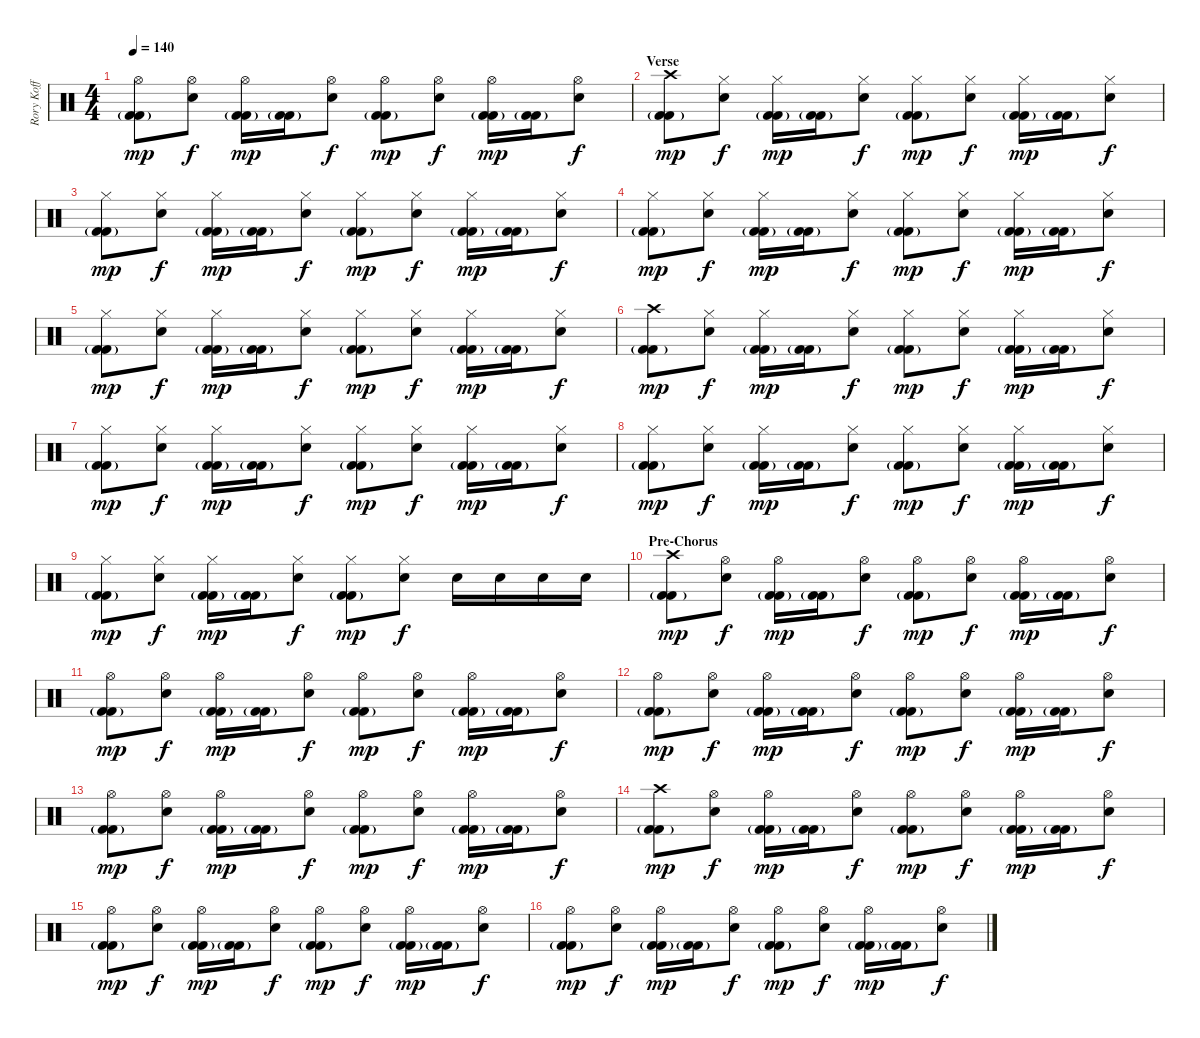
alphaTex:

\track ("Rory Koff" "Rory Koff") {instrument percussion}
\staff {score}
\articulation defaults
\ts (4 4)
\tempo 140
\clef neutral
\ks c
("Hi-Hat (open)" "Kick (hit) 2"{g} "Kick (hit) 2").8{dy mp} ("Hi-Hat (open)" "Snare (hit) 2").8{dy f} ("Hi-Hat (open)" "Kick (hit) 2"{g} "Kick (hit) 2").16{dy mp} ("Kick (hit) 2"{g} "Kick (hit) 2").16 ("Hi-Hat (open)" "Snare (hit) 2").8{dy f} ("Hi-Hat (open)" "Kick (hit) 2"{g} "Kick (hit) 2").8{dy mp} ("Hi-Hat (open)" "Snare (hit) 2").8{dy f} ("Hi-Hat (open)" "Kick (hit) 2"{g} "Kick (hit) 2").16{dy mp} ("Kick (hit) 2"{g} "Kick (hit) 2").16 ("Hi-Hat (open)" "Snare (hit) 2").8{dy f} |
\section ("" "Verse")
("Crash high (hit)" "Kick (hit) 2"{g} "Kick (hit) 2").8{dy mp} ("Hi-Hat (closed)" "Snare (hit) 2").8{dy f} ("Hi-Hat (closed)" "Kick (hit) 2"{g} "Kick (hit) 2").16{dy mp} ("Kick (hit) 2"{g} "Kick (hit) 2").16 ("Hi-Hat (closed)" "Snare (hit) 2").8{dy f} ("Hi-Hat (closed)" "Kick (hit) 2"{g} "Kick (hit) 2").8{dy mp} ("Hi-Hat (closed)" "Snare (hit) 2").8{dy f} ("Hi-Hat (closed)" "Kick (hit) 2"{g} "Kick (hit) 2").16{dy mp} ("Kick (hit) 2"{g} "Kick (hit) 2").16 ("Hi-Hat (closed)" "Snare (hit) 2").8{dy f} |
("Hi-Hat (closed)" "Kick (hit) 2"{g} "Kick (hit) 2").8{dy mp} ("Hi-Hat (closed)" "Snare (hit) 2").8{dy f} ("Hi-Hat (closed)" "Kick (hit) 2"{g} "Kick (hit) 2").16{dy mp} ("Kick (hit) 2"{g} "Kick (hit) 2").16 ("Hi-Hat (closed)" "Snare (hit) 2").8{dy f} ("Hi-Hat (closed)" "Kick (hit) 2"{g} "Kick (hit) 2").8{dy mp} ("Hi-Hat (closed)" "Snare (hit) 2").8{dy f} ("Hi-Hat (closed)" "Kick (hit) 2"{g} "Kick (hit) 2").16{dy mp} ("Kick (hit) 2"{g} "Kick (hit) 2").16 ("Hi-Hat (closed)" "Snare (hit) 2").8{dy f} |
("Hi-Hat (closed)" "Kick (hit) 2"{g} "Kick (hit) 2").8{dy mp} ("Hi-Hat (closed)" "Snare (hit) 2").8{dy f} ("Hi-Hat (closed)" "Kick (hit) 2"{g} "Kick (hit) 2").16{dy mp} ("Kick (hit) 2"{g} "Kick (hit) 2").16 ("Hi-Hat (closed)" "Snare (hit) 2").8{dy f} ("Hi-Hat (closed)" "Kick (hit) 2"{g} "Kick (hit) 2").8{dy mp} ("Hi-Hat (closed)" "Snare (hit) 2").8{dy f} ("Hi-Hat (closed)" "Kick (hit) 2"{g} "Kick (hit) 2").16{dy mp} ("Kick (hit) 2"{g} "Kick (hit) 2").16 ("Hi-Hat (closed)" "Snare (hit) 2").8{dy f} |
("Hi-Hat (closed)" "Kick (hit) 2"{g} "Kick (hit) 2").8{dy mp} ("Hi-Hat (closed)" "Snare (hit) 2").8{dy f} ("Hi-Hat (closed)" "Kick (hit) 2"{g} "Kick (hit) 2").16{dy mp} ("Kick (hit) 2"{g} "Kick (hit) 2").16 ("Hi-Hat (closed)" "Snare (hit) 2").8{dy f} ("Hi-Hat (closed)" "Kick (hit) 2"{g} "Kick (hit) 2").8{dy mp} ("Hi-Hat (closed)" "Snare (hit) 2").8{dy f} ("Hi-Hat (closed)" "Kick (hit) 2"{g} "Kick (hit) 2").16{dy mp} ("Kick (hit) 2"{g} "Kick (hit) 2").16 ("Hi-Hat (closed)" "Snare (hit) 2").8{dy f} |
("Crash high (hit)" "Kick (hit) 2"{g} "Kick (hit) 2").8{dy mp} ("Hi-Hat (closed)" "Snare (hit) 2").8{dy f} ("Hi-Hat (closed)" "Kick (hit) 2"{g} "Kick (hit) 2").16{dy mp} ("Kick (hit) 2"{g} "Kick (hit) 2").16 ("Hi-Hat (closed)" "Snare (hit) 2").8{dy f} ("Hi-Hat (closed)" "Kick (hit) 2"{g} "Kick (hit) 2").8{dy mp} ("Hi-Hat (closed)" "Snare (hit) 2").8{dy f} ("Hi-Hat (closed)" "Kick (hit) 2"{g} "Kick (hit) 2").16{dy mp} ("Kick (hit) 2"{g} "Kick (hit) 2").16 ("Hi-Hat (closed)" "Snare (hit) 2").8{dy f} |
("Hi-Hat (closed)" "Kick (hit) 2"{g} "Kick (hit) 2").8{dy mp} ("Hi-Hat (closed)" "Snare (hit) 2").8{dy f} ("Hi-Hat (closed)" "Kick (hit) 2"{g} "Kick (hit) 2").16{dy mp} ("Kick (hit) 2"{g} "Kick (hit) 2").16 ("Hi-Hat (closed)" "Snare (hit) 2").8{dy f} ("Hi-Hat (closed)" "Kick (hit) 2"{g} "Kick (hit) 2").8{dy mp} ("Hi-Hat (closed)" "Snare (hit) 2").8{dy f} ("Hi-Hat (closed)" "Kick (hit) 2"{g} "Kick (hit) 2").16{dy mp} ("Kick (hit) 2"{g} "Kick (hit) 2").16 ("Hi-Hat (closed)" "Snare (hit) 2").8{dy f} |
("Hi-Hat (closed)" "Kick (hit) 2"{g} "Kick (hit) 2").8{dy mp} ("Hi-Hat (closed)" "Snare (hit) 2").8{dy f} ("Hi-Hat (closed)" "Kick (hit) 2"{g} "Kick (hit) 2").16{dy mp} ("Kick (hit) 2"{g} "Kick (hit) 2").16 ("Hi-Hat (closed)" "Snare (hit) 2").8{dy f} ("Hi-Hat (closed)" "Kick (hit) 2"{g} "Kick (hit) 2").8{dy mp} ("Hi-Hat (closed)" "Snare (hit) 2").8{dy f} ("Hi-Hat (closed)" "Kick (hit) 2"{g} "Kick (hit) 2").16{dy mp} ("Kick (hit) 2"{g} "Kick (hit) 2").16 ("Hi-Hat (closed)" "Snare (hit) 2").8{dy f} |
("Hi-Hat (closed)" "Kick (hit) 2"{g} "Kick (hit) 2").8{dy mp} ("Hi-Hat (closed)" "Snare (hit) 2").8{dy f} ("Hi-Hat (closed)" "Kick (hit) 2"{g} "Kick (hit) 2").16{dy mp} ("Kick (hit) 2"{g} "Kick (hit) 2").16 ("Hi-Hat (closed)" "Snare (hit) 2").8{dy f} ("Hi-Hat (closed)" "Kick (hit) 2"{g} "Kick (hit) 2").8{dy mp} ("Hi-Hat (closed)" "Snare (hit) 2").8{dy f} "Snare (hit) 2".16 "Snare (hit) 2".16 "Snare (hit) 2".16 "Snare (hit) 2".16 |
\section ("" "Pre-Chorus")
("Crash high (hit)" "Kick (hit) 2"{g} "Kick (hit) 2").8{dy mp} ("Hi-Hat (open)" "Snare (hit) 2").8{dy f} ("Hi-Hat (open)" "Kick (hit) 2"{g} "Kick (hit) 2").16{dy mp} ("Kick (hit) 2"{g} "Kick (hit) 2").16 ("Hi-Hat (open)" "Snare (hit) 2").8{dy f} ("Hi-Hat (open)" "Kick (hit) 2"{g} "Kick (hit) 2").8{dy mp} ("Hi-Hat (open)" "Snare (hit) 2").8{dy f} ("Hi-Hat (open)" "Kick (hit) 2"{g} "Kick (hit) 2").16{dy mp} ("Kick (hit) 2"{g} "Kick (hit) 2").16 ("Hi-Hat (open)" "Snare (hit) 2").8{dy f} |
("Hi-Hat (open)" "Kick (hit) 2"{g} "Kick (hit) 2").8{dy mp} ("Hi-Hat (open)" "Snare (hit) 2").8{dy f} ("Hi-Hat (open)" "Kick (hit) 2"{g} "Kick (hit) 2").16{dy mp} ("Kick (hit) 2"{g} "Kick (hit) 2").16 ("Hi-Hat (open)" "Snare (hit) 2").8{dy f} ("Hi-Hat (open)" "Kick (hit) 2"{g} "Kick (hit) 2").8{dy mp} ("Hi-Hat (open)" "Snare (hit) 2").8{dy f} ("Hi-Hat (open)" "Kick (hit) 2"{g} "Kick (hit) 2").16{dy mp} ("Kick (hit) 2"{g} "Kick (hit) 2").16 ("Hi-Hat (open)" "Snare (hit) 2").8{dy f} |
("Hi-Hat (open)" "Kick (hit) 2"{g} "Kick (hit) 2").8{dy mp} ("Hi-Hat (open)" "Snare (hit) 2").8{dy f} ("Hi-Hat (open)" "Kick (hit) 2"{g} "Kick (hit) 2").16{dy mp} ("Kick (hit) 2"{g} "Kick (hit) 2").16 ("Hi-Hat (open)" "Snare (hit) 2").8{dy f} ("Hi-Hat (open)" "Kick (hit) 2"{g} "Kick (hit) 2").8{dy mp} ("Hi-Hat (open)" "Snare (hit) 2").8{dy f} ("Hi-Hat (open)" "Kick (hit) 2"{g} "Kick (hit) 2").16{dy mp} ("Kick (hit) 2"{g} "Kick (hit) 2").16 ("Hi-Hat (open)" "Snare (hit) 2").8{dy f} |
("Hi-Hat (open)" "Kick (hit) 2"{g} "Kick (hit) 2").8{dy mp} ("Hi-Hat (open)" "Snare (hit) 2").8{dy f} ("Hi-Hat (open)" "Kick (hit) 2"{g} "Kick (hit) 2").16{dy mp} ("Kick (hit) 2"{g} "Kick (hit) 2").16 ("Hi-Hat (open)" "Snare (hit) 2").8{dy f} ("Hi-Hat (open)" "Kick (hit) 2"{g} "Kick (hit) 2").8{dy mp} ("Hi-Hat (open)" "Snare (hit) 2").8{dy f} ("Hi-Hat (open)" "Kick (hit) 2"{g} "Kick (hit) 2").16{dy mp} ("Kick (hit) 2"{g} "Kick (hit) 2").16 ("Hi-Hat (open)" "Snare (hit) 2").8{dy f} |
("Crash high (hit)" "Kick (hit) 2"{g} "Kick (hit) 2").8{dy mp} ("Hi-Hat (open)" "Snare (hit) 2").8{dy f} ("Hi-Hat (open)" "Kick (hit) 2"{g} "Kick (hit) 2").16{dy mp} ("Kick (hit) 2"{g} "Kick (hit) 2").16 ("Hi-Hat (open)" "Snare (hit) 2").8{dy f} ("Hi-Hat (open)" "Kick (hit) 2"{g} "Kick (hit) 2").8{dy mp} ("Hi-Hat (open)" "Snare (hit) 2").8{dy f} ("Hi-Hat (open)" "Kick (hit) 2"{g} "Kick (hit) 2").16{dy mp} ("Kick (hit) 2"{g} "Kick (hit) 2").16 ("Hi-Hat (open)" "Snare (hit) 2").8{dy f} |
("Hi-Hat (open)" "Kick (hit) 2"{g} "Kick (hit) 2").8{dy mp} ("Hi-Hat (open)" "Snare (hit) 2").8{dy f} ("Hi-Hat (open)" "Kick (hit) 2"{g} "Kick (hit) 2").16{dy mp} ("Kick (hit) 2"{g} "Kick (hit) 2").16 ("Hi-Hat (open)" "Snare (hit) 2").8{dy f} ("Hi-Hat (open)" "Kick (hit) 2"{g} "Kick (hit) 2").8{dy mp} ("Hi-Hat (open)" "Snare (hit) 2").8{dy f} ("Hi-Hat (open)" "Kick (hit) 2"{g} "Kick (hit) 2").16{dy mp} ("Kick (hit) 2"{g} "Kick (hit) 2").16 ("Hi-Hat (open)" "Snare (hit) 2").8{dy f} |
("Hi-Hat (open)" "Kick (hit) 2"{g} "Kick (hit) 2").8{dy mp} ("Hi-Hat (open)" "Snare (hit) 2").8{dy f} ("Hi-Hat (open)" "Kick (hit) 2"{g} "Kick (hit) 2").16{dy mp} ("Kick (hit) 2"{g} "Kick (hit) 2").16 ("Hi-Hat (open)" "Snare (hit) 2").8{dy f} ("Hi-Hat (open)" "Kick (hit) 2"{g} "Kick (hit) 2").8{dy mp} ("Hi-Hat (open)" "Snare (hit) 2").8{dy f} ("Hi-Hat (open)" "Kick (hit) 2"{g} "Kick (hit) 2").16{dy mp} ("Kick (hit) 2"{g} "Kick (hit) 2").16 ("Hi-Hat (open)" "Snare (hit) 2").8{dy f}
